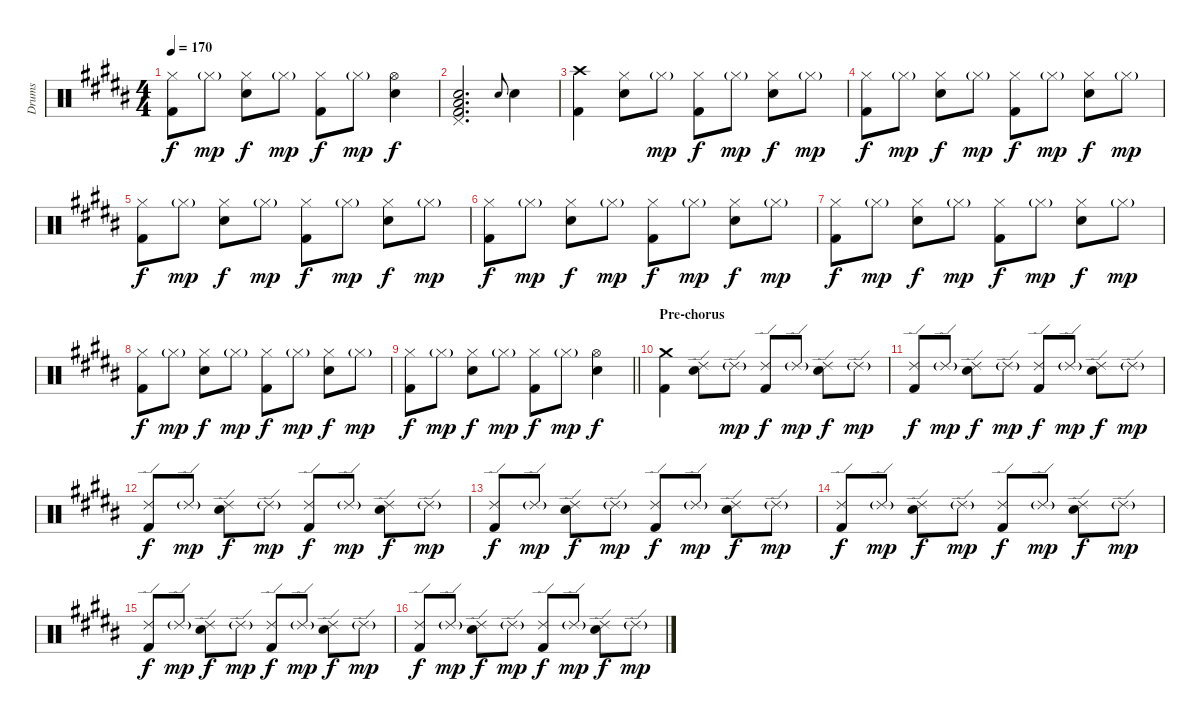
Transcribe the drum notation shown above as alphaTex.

\track ("Drums" "Drums") {instrument percussion}
\staff {score}
\articulation defaults
\ts (4 4)
\tempo 170
\clef neutral
\ks b
("Hi-Hat (closed)" "Kick (hit) 2").8{dy f} "Hi-Hat (closed)"{g}.8{dy mp} ("Hi-Hat (closed)" "Electric Snare (hit)").8{dy f} "Hi-Hat (closed)"{g}.8{dy mp} ("Hi-Hat (closed)" "Kick (hit) 2").8{dy f} "Hi-Hat (closed)"{g}.8{dy mp} ("Hi-Hat (open)" "Electric Snare (hit)").4{dy f} |
("Pedal Hi-Hat (hit)" "Low Floor Tom (hit)" "Electric Snare (hit)" "Kick (hit) 2").2{d} "Electric Snare (hit)".8{gr onbeat} "Electric Snare (hit)".4 |
("Crash high (hit)" "Kick (hit) 2").4 ("Hi-Hat (closed)" "Electric Snare (hit)").8 "Hi-Hat (closed)"{g}.8{dy mp} ("Hi-Hat (closed)" "Kick (hit) 2").8{dy f} "Hi-Hat (closed)"{g}.8{dy mp} ("Hi-Hat (closed)" "Electric Snare (hit)").8{dy f} "Hi-Hat (closed)"{g}.8{dy mp} |
("Hi-Hat (closed)" "Kick (hit) 2").8{dy f} "Hi-Hat (closed)"{g}.8{dy mp} ("Hi-Hat (closed)" "Electric Snare (hit)").8{dy f} "Hi-Hat (closed)"{g}.8{dy mp} ("Hi-Hat (closed)" "Kick (hit) 2").8{dy f} "Hi-Hat (closed)"{g}.8{dy mp} ("Hi-Hat (closed)" "Electric Snare (hit)").8{dy f} "Hi-Hat (closed)"{g}.8{dy mp} |
("Hi-Hat (closed)" "Kick (hit) 2").8{dy f} "Hi-Hat (closed)"{g}.8{dy mp} ("Hi-Hat (closed)" "Electric Snare (hit)").8{dy f} "Hi-Hat (closed)"{g}.8{dy mp} ("Hi-Hat (closed)" "Kick (hit) 2").8{dy f} "Hi-Hat (closed)"{g}.8{dy mp} ("Hi-Hat (closed)" "Electric Snare (hit)").8{dy f} "Hi-Hat (closed)"{g}.8{dy mp} |
("Hi-Hat (closed)" "Kick (hit) 2").8{dy f} "Hi-Hat (closed)"{g}.8{dy mp} ("Hi-Hat (closed)" "Electric Snare (hit)").8{dy f} "Hi-Hat (closed)"{g}.8{dy mp} ("Hi-Hat (closed)" "Kick (hit) 2").8{dy f} "Hi-Hat (closed)"{g}.8{dy mp} ("Hi-Hat (closed)" "Electric Snare (hit)").8{dy f} "Hi-Hat (closed)"{g}.8{dy mp} |
("Hi-Hat (closed)" "Kick (hit) 2").8{dy f} "Hi-Hat (closed)"{g}.8{dy mp} ("Hi-Hat (closed)" "Electric Snare (hit)").8{dy f} "Hi-Hat (closed)"{g}.8{dy mp} ("Hi-Hat (closed)" "Kick (hit) 2").8{dy f} "Hi-Hat (closed)"{g}.8{dy mp} ("Hi-Hat (closed)" "Electric Snare (hit)").8{dy f} "Hi-Hat (closed)"{g}.8{dy mp} |
("Hi-Hat (closed)" "Kick (hit) 2").8{dy f} "Hi-Hat (closed)"{g}.8{dy mp} ("Hi-Hat (closed)" "Electric Snare (hit)").8{dy f} "Hi-Hat (closed)"{g}.8{dy mp} ("Hi-Hat (closed)" "Kick (hit) 2").8{dy f} "Hi-Hat (closed)"{g}.8{dy mp} ("Hi-Hat (closed)" "Electric Snare (hit)").8{dy f} "Hi-Hat (closed)"{g}.8{dy mp} |
\barLineRight lightlight
("Hi-Hat (closed)" "Kick (hit) 2").8{dy f} "Hi-Hat (closed)"{g}.8{dy mp} ("Hi-Hat (closed)" "Electric Snare (hit)").8{dy f} "Hi-Hat (closed)"{g}.8{dy mp} ("Hi-Hat (closed)" "Kick (hit) 2").8{dy f} "Hi-Hat (closed)"{g}.8{dy mp} ("Hi-Hat (open)" "Electric Snare (hit)").4{dy f} |
\section ("" "Pre-chorus")
("Crash medium (hit)" "Kick (hit) 2").4 ("Ride (edge) 2" "Electric Snare (hit)").8 "Ride (edge) 2"{g}.8{dy mp} ("Ride (edge) 2" "Kick (hit) 2").8{dy f} "Ride (edge) 2"{g}.8{dy mp} ("Ride (edge) 2" "Electric Snare (hit)").8{dy f} "Ride (edge) 2"{g}.8{dy mp} |
("Ride (edge) 2" "Kick (hit) 2").8{dy f} "Ride (edge) 2"{g}.8{dy mp} ("Ride (edge) 2" "Electric Snare (hit)").8{dy f} "Ride (edge) 2"{g}.8{dy mp} ("Ride (edge) 2" "Kick (hit) 2").8{dy f} "Ride (edge) 2"{g}.8{dy mp} ("Ride (edge) 2" "Electric Snare (hit)").8{dy f} "Ride (edge) 2"{g}.8{dy mp} |
("Ride (edge) 2" "Kick (hit) 2").8{dy f} "Ride (edge) 2"{g}.8{dy mp} ("Ride (edge) 2" "Electric Snare (hit)").8{dy f} "Ride (edge) 2"{g}.8{dy mp} ("Ride (edge) 2" "Kick (hit) 2").8{dy f} "Ride (edge) 2"{g}.8{dy mp} ("Ride (edge) 2" "Electric Snare (hit)").8{dy f} "Ride (edge) 2"{g}.8{dy mp} |
("Ride (edge) 2" "Kick (hit) 2").8{dy f} "Ride (edge) 2"{g}.8{dy mp} ("Ride (edge) 2" "Electric Snare (hit)").8{dy f} "Ride (edge) 2"{g}.8{dy mp} ("Ride (edge) 2" "Kick (hit) 2").8{dy f} "Ride (edge) 2"{g}.8{dy mp} ("Ride (edge) 2" "Electric Snare (hit)").8{dy f} "Ride (edge) 2"{g}.8{dy mp} |
("Ride (edge) 2" "Kick (hit) 2").8{dy f} "Ride (edge) 2"{g}.8{dy mp} ("Ride (edge) 2" "Electric Snare (hit)").8{dy f} "Ride (edge) 2"{g}.8{dy mp} ("Ride (edge) 2" "Kick (hit) 2").8{dy f} "Ride (edge) 2"{g}.8{dy mp} ("Ride (edge) 2" "Electric Snare (hit)").8{dy f} "Ride (edge) 2"{g}.8{dy mp} |
("Ride (edge) 2" "Kick (hit) 2").8{dy f} "Ride (edge) 2"{g}.8{dy mp} ("Ride (edge) 2" "Electric Snare (hit)").8{dy f} "Ride (edge) 2"{g}.8{dy mp} ("Ride (edge) 2" "Kick (hit) 2").8{dy f} "Ride (edge) 2"{g}.8{dy mp} ("Ride (edge) 2" "Electric Snare (hit)").8{dy f} "Ride (edge) 2"{g}.8{dy mp} |
("Ride (edge) 2" "Kick (hit) 2").8{dy f} "Ride (edge) 2"{g}.8{dy mp} ("Ride (edge) 2" "Electric Snare (hit)").8{dy f} "Ride (edge) 2"{g}.8{dy mp} ("Ride (edge) 2" "Kick (hit) 2").8{dy f} "Ride (edge) 2"{g}.8{dy mp} ("Ride (edge) 2" "Electric Snare (hit)").8{dy f} "Ride (edge) 2"{g}.8{dy mp}
